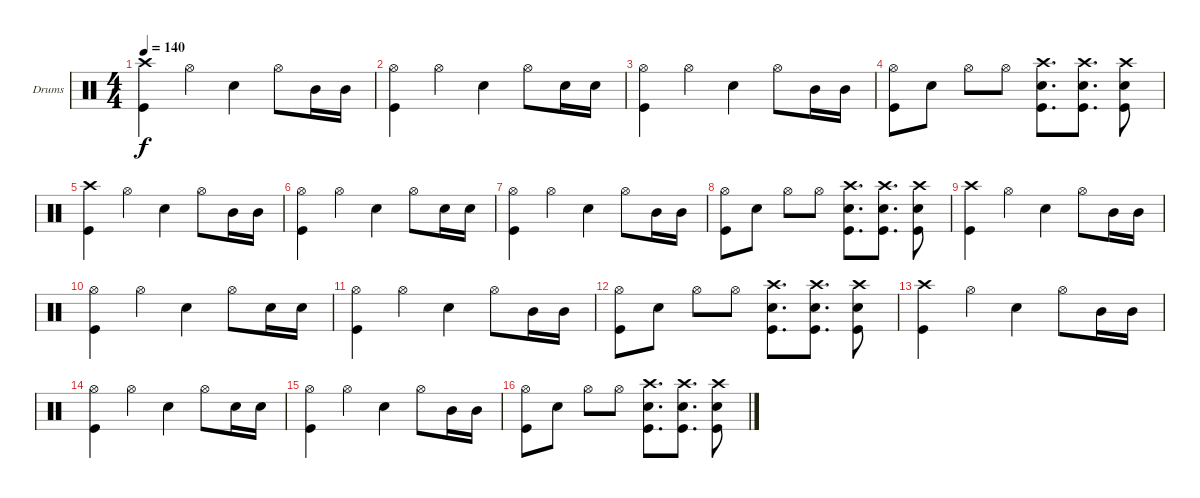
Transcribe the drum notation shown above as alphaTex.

\bracketExtendMode groupsimilarinstruments
\firstSystemTrackNameOrientation horizontal
\otherSystemsTrackNameOrientation horizontal
\track ("Batterie - Anders Johansson" "Drums") {instrument percussion}
\staff {score}
\articulation defaults
\ts (4 4)
\tempo 140
\clef neutral
\ks c
("Crash high (hit)" "Kick (hit)").4{dy f} "Hi-Hat (open)".4 "Snare (hit) 2".4 "Hi-Hat (open)".8 "Mid Tom (hit)".16 "Mid Tom (hit)".16 |
("Hi-Hat (open)" "Kick (hit)").4 "Hi-Hat (open)".4 "Snare (hit) 2".4 "Hi-Hat (open)".8 "Snare (hit) 2".16 "Snare (hit) 2".16 |
("Hi-Hat (open)" "Kick (hit)").4 "Hi-Hat (open)".4 "Snare (hit) 2".4 "Hi-Hat (open)".8 "Mid Tom (hit)".16 "Mid Tom (hit)".16 |
("Hi-Hat (open)" "Kick (hit)").8 "Snare (hit) 2".8 "Hi-Hat (open)".8 "Hi-Hat (open)".8 ("Crash high (hit)" "Snare (hit) 2" "Kick (hit)").8{d} ("Crash high (hit)" "Snare (hit) 2" "Kick (hit)").8{d} ("Crash high (hit)" "Snare (hit) 2" "Kick (hit)").8 |
("Crash high (hit)" "Kick (hit)").4 "Hi-Hat (open)".4 "Snare (hit) 2".4 "Hi-Hat (open)".8 "Mid Tom (hit)".16 "Mid Tom (hit)".16 |
("Hi-Hat (open)" "Kick (hit)").4 "Hi-Hat (open)".4 "Snare (hit) 2".4 "Hi-Hat (open)".8 "Snare (hit) 2".16 "Snare (hit) 2".16 |
("Hi-Hat (open)" "Kick (hit)").4 "Hi-Hat (open)".4 "Snare (hit) 2".4 "Hi-Hat (open)".8 "Mid Tom (hit)".16 "Mid Tom (hit)".16 |
("Hi-Hat (open)" "Kick (hit)").8 "Snare (hit) 2".8 "Hi-Hat (open)".8 "Hi-Hat (open)".8 ("Crash high (hit)" "Snare (hit) 2" "Kick (hit)").8{d} ("Crash high (hit)" "Snare (hit) 2" "Kick (hit)").8{d} ("Crash high (hit)" "Snare (hit) 2" "Kick (hit)").8 |
("Crash high (hit)" "Kick (hit)").4 "Hi-Hat (open)".4 "Snare (hit) 2".4 "Hi-Hat (open)".8 "Mid Tom (hit)".16 "Mid Tom (hit)".16 |
("Hi-Hat (open)" "Kick (hit)").4 "Hi-Hat (open)".4 "Snare (hit) 2".4 "Hi-Hat (open)".8 "Snare (hit) 2".16 "Snare (hit) 2".16 |
("Hi-Hat (open)" "Kick (hit)").4 "Hi-Hat (open)".4 "Snare (hit) 2".4 "Hi-Hat (open)".8 "Mid Tom (hit)".16 "Mid Tom (hit)".16 |
("Hi-Hat (open)" "Kick (hit)").8 "Snare (hit) 2".8 "Hi-Hat (open)".8 "Hi-Hat (open)".8 ("Crash high (hit)" "Snare (hit) 2" "Kick (hit)").8{d} ("Crash high (hit)" "Snare (hit) 2" "Kick (hit)").8{d} ("Crash high (hit)" "Snare (hit) 2" "Kick (hit)").8 |
("Crash high (hit)" "Kick (hit)").4 "Hi-Hat (open)".4 "Snare (hit) 2".4 "Hi-Hat (open)".8 "Mid Tom (hit)".16 "Mid Tom (hit)".16 |
("Hi-Hat (open)" "Kick (hit)").4 "Hi-Hat (open)".4 "Snare (hit) 2".4 "Hi-Hat (open)".8 "Snare (hit) 2".16 "Snare (hit) 2".16 |
("Hi-Hat (open)" "Kick (hit)").4 "Hi-Hat (open)".4 "Snare (hit) 2".4 "Hi-Hat (open)".8 "Mid Tom (hit)".16 "Mid Tom (hit)".16 |
("Hi-Hat (open)" "Kick (hit)").8 "Snare (hit) 2".8 "Hi-Hat (open)".8 "Hi-Hat (open)".8 ("Crash high (hit)" "Snare (hit) 2" "Kick (hit)").8{d} ("Crash high (hit)" "Snare (hit) 2" "Kick (hit)").8{d} ("Crash high (hit)" "Snare (hit) 2" "Kick (hit)").8
